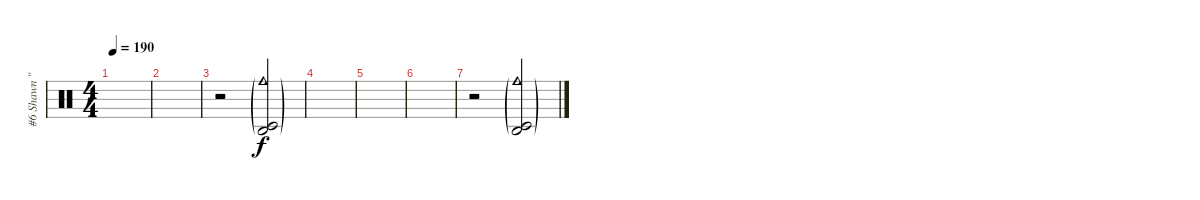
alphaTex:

\track ("#6 Shawn \"Clown\" Crahan" "#6 Shawn \"") {instrument percussion}
\staff {score}
\articulation defaults
\ts (4 4)
\tempo 190
\clef neutral
\ks c
|
|
r.2 ("Cowbell medium (hit)"{g} "Timbale low (hit)"{g} "Agogo high (hit)"{g}).2 |
|
|
|
r.2 ("Cowbell medium (hit)"{g} "Timbale low (hit)"{g} "Agogo high (hit)"{g}).2
